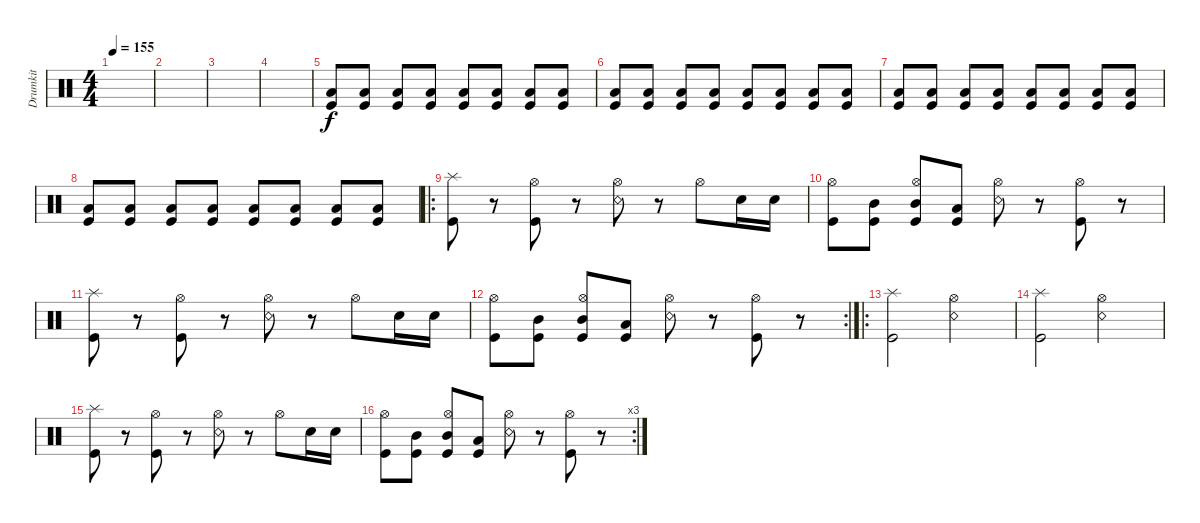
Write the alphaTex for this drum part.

\track ("Drumkit" "Drumkit") {instrument percussion}
\staff {score}
\articulation defaults
\ts (4 4)
\tempo 155
\clef neutral
\ks c
|
|
|
|
("Kick (hit)" "Low Tom (hit)").8 ("Kick (hit)" "Low Tom (hit)").8 ("Kick (hit)" "Low Tom (hit)").8 ("Kick (hit)" "Low Tom (hit)").8 ("Kick (hit)" "Low Tom (hit)").8 ("Kick (hit)" "Low Tom (hit)").8 ("Kick (hit)" "Low Tom (hit)").8 ("Kick (hit)" "Low Tom (hit)").8 |
("Kick (hit)" "Low Tom (hit)").8 ("Kick (hit)" "Low Tom (hit)").8 ("Kick (hit)" "Low Tom (hit)").8 ("Kick (hit)" "Low Tom (hit)").8 ("Kick (hit)" "Low Tom (hit)").8 ("Kick (hit)" "Low Tom (hit)").8 ("Kick (hit)" "Low Tom (hit)").8 ("Kick (hit)" "Low Tom (hit)").8 |
("Kick (hit)" "Low Tom (hit)").8 ("Kick (hit)" "Low Tom (hit)").8 ("Kick (hit)" "Low Tom (hit)").8 ("Kick (hit)" "Low Tom (hit)").8 ("Kick (hit)" "Low Tom (hit)").8 ("Kick (hit)" "Low Tom (hit)").8 ("Kick (hit)" "Low Tom (hit)").8 ("Kick (hit)" "Low Tom (hit)").8 |
("Kick (hit)" "Low Tom (hit)").8 ("Kick (hit)" "Low Tom (hit)").8 ("Kick (hit)" "Low Tom (hit)").8 ("Kick (hit)" "Low Tom (hit)").8 ("Kick (hit)" "Low Tom (hit)").8 ("Kick (hit)" "Low Tom (hit)").8 ("Kick (hit)" "Low Tom (hit)").8 ("Kick (hit)" "Low Tom (hit)").8 |
\ro
("Kick (hit)" "Splash (hit)").8 r.8 ("Kick (hit)" "Hi-Hat (open)").8 r.8 ("Snare (rim shot)" "Hi-Hat (open)").8 r.8 "Hi-Hat (open)".8 "Snare (hit) 2".16 "Snare (hit) 2".16 |
("Kick (hit)" "Hi-Hat (open)").8 ("Kick (hit)" "Mid Tom (hit)").8 ("Kick (hit)" "Hi-Hat (open)" "Mid Tom (hit)").8 ("Kick (hit)" "Low Tom (hit)").8 ("Hi-Hat (open)" "Snare (rim shot)").8 r.8 ("Hi-Hat (open)" "Kick (hit)").8 r.8 |
("Kick (hit)" "Splash (hit)").8 r.8 ("Kick (hit)" "Hi-Hat (open)").8 r.8 ("Snare (rim shot)" "Hi-Hat (open)").8 r.8 "Hi-Hat (open)".8 "Snare (hit) 2".16 "Snare (hit) 2".16 |
\rc 2
("Kick (hit)" "Hi-Hat (open)").8 ("Kick (hit)" "Mid Tom (hit)").8 ("Kick (hit)" "Hi-Hat (open)" "Mid Tom (hit)").8 ("Kick (hit)" "Low Tom (hit)").8 ("Hi-Hat (open)" "Snare (rim shot)").8 r.8 ("Hi-Hat (open)" "Kick (hit)").8 r.8 |
\ro
("Kick (hit)" "Splash (hit)").2 ("Snare (rim shot)" "Hi-Hat (open)").2 |
("Kick (hit)" "Splash (hit)").2 ("Snare (rim shot)" "Hi-Hat (open)").2 |
("Kick (hit)" "Splash (hit)").8 r.8 ("Kick (hit)" "Hi-Hat (open)").8 r.8 ("Snare (rim shot)" "Hi-Hat (open)").8 r.8 "Hi-Hat (open)".8 "Snare (hit) 2".16 "Snare (hit) 2".16 |
\rc 3
("Kick (hit)" "Hi-Hat (open)").8 ("Kick (hit)" "Mid Tom (hit)").8 ("Kick (hit)" "Hi-Hat (open)" "Mid Tom (hit)").8 ("Kick (hit)" "Low Tom (hit)").8 ("Hi-Hat (open)" "Snare (rim shot)").8 r.8 ("Hi-Hat (open)" "Kick (hit)").8 r.8
